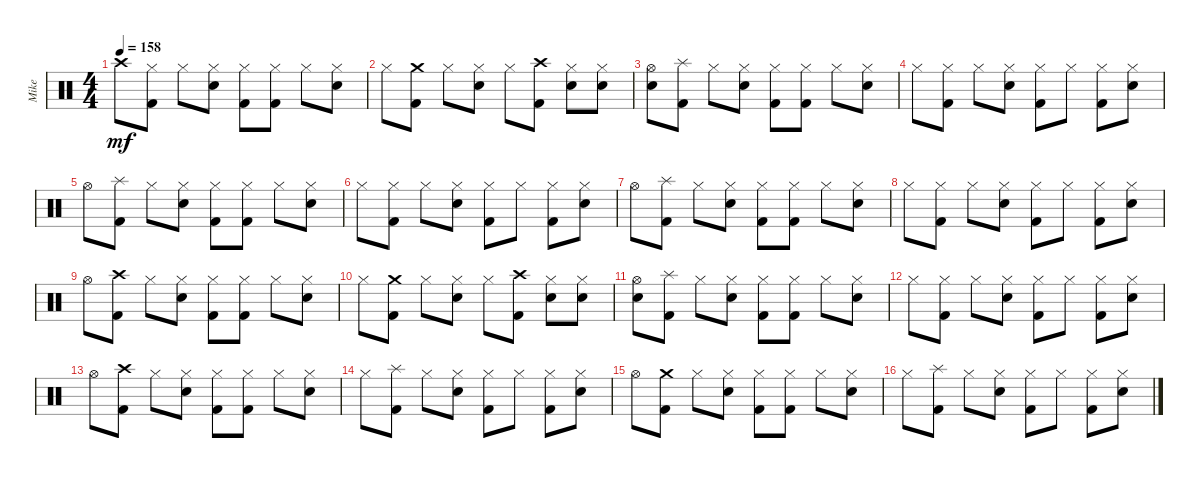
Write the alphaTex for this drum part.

\track ("Mike" "Mike") {instrument percussion}
\staff {score}
\articulation defaults
\ts (4 4)
\tempo 158
\clef neutral
\ks c "Crash high (hit)".8{dy mf}
("Hi-Hat (closed)" "Kick (hit) 2").8 "Hi-Hat (closed)".8 ("Hi-Hat (closed)" "Electric Snare (hit)").8 ("Hi-Hat (closed)" "Kick (hit) 2").8 ("Hi-Hat (closed)" "Kick (hit) 2").8 "Hi-Hat (closed)".8 ("Hi-Hat (closed)" "Electric Snare (hit)").8 |
"Hi-Hat (closed)".8 ("Crash medium (hit)" "Kick (hit) 2").8 "Hi-Hat (closed)".8 ("Hi-Hat (closed)" "Electric Snare (hit)").8 "Hi-Hat (closed)".8 ("Crash high (hit)" "Kick (hit) 2").8 ("Hi-Hat (closed)" "Electric Snare (hit)").8 ("Hi-Hat (closed)" "Electric Snare (hit)").8 |
("Hi-Hat (open)" "Electric Snare (hit)").8 ("Splash (hit)" "Kick (hit) 2").8 "Hi-Hat (closed)".8 ("Hi-Hat (closed)" "Electric Snare (hit)").8 ("Hi-Hat (closed)" "Kick (hit) 2").8 ("Hi-Hat (closed)" "Kick (hit) 2").8 "Hi-Hat (closed)".8 ("Hi-Hat (closed)" "Electric Snare (hit)").8 |
"Hi-Hat (closed)".8 ("Hi-Hat (closed)" "Kick (hit) 2").8 "Hi-Hat (closed)".8 ("Hi-Hat (closed)" "Electric Snare (hit)").8 ("Hi-Hat (closed)" "Kick (hit) 2").8 "Hi-Hat (closed)".8 ("Hi-Hat (closed)" "Kick (hit) 2").8 ("Hi-Hat (closed)" "Electric Snare (hit)").8 |
"Hi-Hat (open)".8 ("Splash (hit)" "Kick (hit) 2").8 "Hi-Hat (closed)".8 ("Hi-Hat (closed)" "Electric Snare (hit)").8 ("Hi-Hat (closed)" "Kick (hit) 2").8 ("Hi-Hat (closed)" "Kick (hit) 2").8 "Hi-Hat (closed)".8 ("Hi-Hat (closed)" "Electric Snare (hit)").8 |
"Hi-Hat (closed)".8 ("Hi-Hat (closed)" "Kick (hit) 2").8 "Hi-Hat (closed)".8 ("Hi-Hat (closed)" "Electric Snare (hit)").8 ("Hi-Hat (closed)" "Kick (hit) 2").8 "Hi-Hat (closed)".8 ("Hi-Hat (closed)" "Kick (hit) 2").8 ("Hi-Hat (closed)" "Electric Snare (hit)").8 |
"Hi-Hat (open)".8 ("Splash (hit)" "Kick (hit) 2").8 "Hi-Hat (closed)".8 ("Hi-Hat (closed)" "Electric Snare (hit)").8 ("Hi-Hat (closed)" "Kick (hit) 2").8 ("Hi-Hat (closed)" "Kick (hit) 2").8 "Hi-Hat (closed)".8 ("Hi-Hat (closed)" "Electric Snare (hit)").8 |
"Hi-Hat (closed)".8 ("Hi-Hat (closed)" "Kick (hit) 2").8 "Hi-Hat (closed)".8 ("Hi-Hat (closed)" "Electric Snare (hit)").8 ("Hi-Hat (closed)" "Kick (hit) 2").8 "Hi-Hat (closed)".8 ("Hi-Hat (closed)" "Kick (hit) 2").8 ("Hi-Hat (closed)" "Electric Snare (hit)").8 |
"Hi-Hat (open)".8 ("Crash high (hit)" "Kick (hit) 2").8 "Hi-Hat (closed)".8 ("Hi-Hat (closed)" "Electric Snare (hit)").8 ("Hi-Hat (closed)" "Kick (hit) 2").8 ("Hi-Hat (closed)" "Kick (hit) 2").8 "Hi-Hat (closed)".8 ("Hi-Hat (closed)" "Electric Snare (hit)").8 |
"Hi-Hat (closed)".8 ("Crash medium (hit)" "Kick (hit) 2").8 "Hi-Hat (closed)".8 ("Hi-Hat (closed)" "Electric Snare (hit)").8 "Hi-Hat (closed)".8 ("Crash high (hit)" "Kick (hit) 2").8 ("Hi-Hat (closed)" "Electric Snare (hit)").8 ("Hi-Hat (closed)" "Electric Snare (hit)").8 |
("Hi-Hat (open)" "Electric Snare (hit)").8 ("Splash (hit)" "Kick (hit) 2").8 "Hi-Hat (closed)".8 ("Hi-Hat (closed)" "Electric Snare (hit)").8 ("Hi-Hat (closed)" "Kick (hit) 2").8 ("Hi-Hat (closed)" "Kick (hit) 2").8 "Hi-Hat (closed)".8 ("Hi-Hat (closed)" "Electric Snare (hit)").8 |
"Hi-Hat (closed)".8 ("Hi-Hat (closed)" "Kick (hit) 2").8 "Hi-Hat (closed)".8 ("Hi-Hat (closed)" "Electric Snare (hit)").8 ("Hi-Hat (closed)" "Kick (hit) 2").8 "Hi-Hat (closed)".8 ("Hi-Hat (closed)" "Kick (hit) 2").8 ("Hi-Hat (closed)" "Electric Snare (hit)").8 |
"Hi-Hat (open)".8 ("Crash high (hit)" "Kick (hit) 2").8 "Hi-Hat (closed)".8 ("Hi-Hat (closed)" "Electric Snare (hit)").8 ("Hi-Hat (closed)" "Kick (hit) 2").8 ("Hi-Hat (closed)" "Kick (hit) 2").8 "Hi-Hat (closed)".8 ("Hi-Hat (closed)" "Electric Snare (hit)").8 |
"Hi-Hat (closed)".8 ("Splash (hit)" "Kick (hit) 2").8 "Hi-Hat (closed)".8 ("Hi-Hat (closed)" "Electric Snare (hit)").8 ("Hi-Hat (closed)" "Kick (hit) 2").8 "Hi-Hat (closed)".8 ("Hi-Hat (closed)" "Kick (hit) 2").8 ("Hi-Hat (closed)" "Electric Snare (hit)").8 |
"Hi-Hat (open)".8 ("Crash medium (hit)" "Kick (hit) 2").8 "Hi-Hat (closed)".8 ("Hi-Hat (closed)" "Electric Snare (hit)").8 ("Hi-Hat (closed)" "Kick (hit) 2").8 ("Hi-Hat (closed)" "Kick (hit) 2").8 "Hi-Hat (closed)".8 ("Hi-Hat (closed)" "Electric Snare (hit)").8 |
"Hi-Hat (closed)".8 ("Splash (hit)" "Kick (hit) 2").8 "Hi-Hat (closed)".8 ("Hi-Hat (closed)" "Electric Snare (hit)").8 ("Hi-Hat (closed)" "Kick (hit) 2").8 "Hi-Hat (closed)".8 ("Hi-Hat (closed)" "Kick (hit) 2").8 ("Hi-Hat (closed)" "Electric Snare (hit)").8
